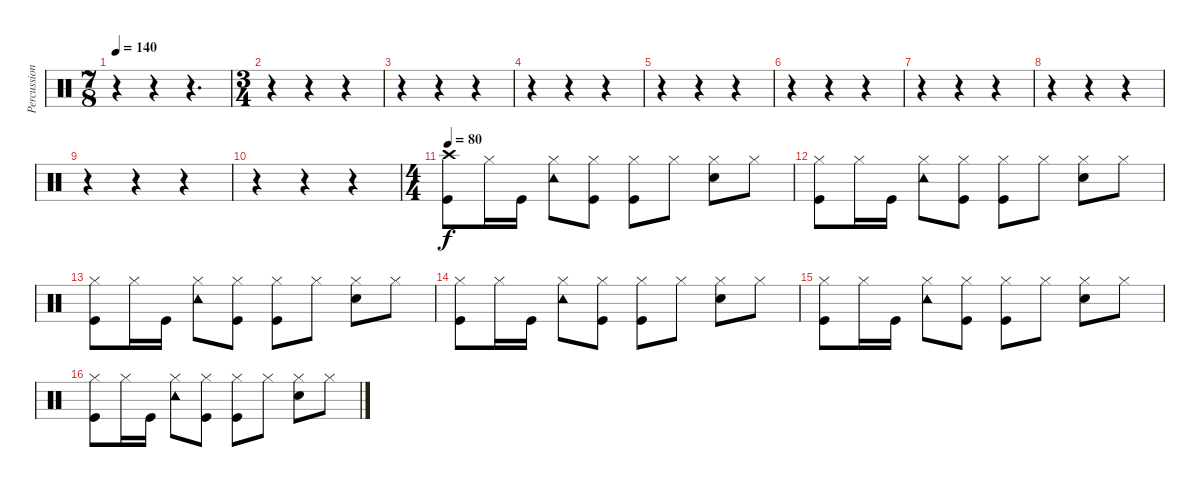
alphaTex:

\track ("Percussion" "Percussion") {instrument percussion}
\staff {score}
\articulation defaults
\ts (7 8)
\tempo 140
\clef neutral
\ks c
r.4{dy f} r.4 r.4{d} |
\ts (3 4)
r.4 r.4 r.4 |
r.4 r.4 r.4 |
r.4 r.4 r.4 |
r.4 r.4 r.4 |
r.4 r.4 r.4 |
r.4 r.4 r.4 |
r.4 r.4 r.4 |
r.4 r.4 r.4 |
r.4 r.4 r.4 |
\ts (4 4)
\tempo 80
("Crash high (hit)" "Kick (hit)").8 "Hi-Hat (closed)".16 "Kick (hit)".16 ("Tambourine (hit)" "Hi-Hat (closed)").8 ("Hi-Hat (closed)" "Kick (hit)").8 ("Hi-Hat (closed)" "Kick (hit)").8 "Hi-Hat (closed)".8 ("Electric Snare (hit)" "Hi-Hat (closed)").8 "Hi-Hat (closed)".8 |
("Hi-Hat (closed)" "Kick (hit)").8 "Hi-Hat (closed)".16 "Kick (hit)".16 ("Tambourine (hit)" "Hi-Hat (closed)").8 ("Hi-Hat (closed)" "Kick (hit)").8 ("Hi-Hat (closed)" "Kick (hit)").8 "Hi-Hat (closed)".8 ("Electric Snare (hit)" "Hi-Hat (closed)").8 "Hi-Hat (closed)".8 |
("Hi-Hat (closed)" "Kick (hit)").8 "Hi-Hat (closed)".16 "Kick (hit)".16 ("Tambourine (hit)" "Hi-Hat (closed)").8 ("Hi-Hat (closed)" "Kick (hit)").8 ("Hi-Hat (closed)" "Kick (hit)").8 "Hi-Hat (closed)".8 ("Electric Snare (hit)" "Hi-Hat (closed)").8 "Hi-Hat (closed)".8 |
("Hi-Hat (closed)" "Kick (hit)").8 "Hi-Hat (closed)".16 "Kick (hit)".16 ("Tambourine (hit)" "Hi-Hat (closed)").8 ("Hi-Hat (closed)" "Kick (hit)").8 ("Hi-Hat (closed)" "Kick (hit)").8 "Hi-Hat (closed)".8 ("Electric Snare (hit)" "Hi-Hat (closed)").8 "Hi-Hat (closed)".8 |
("Hi-Hat (closed)" "Kick (hit)").8 "Hi-Hat (closed)".16 "Kick (hit)".16 ("Tambourine (hit)" "Hi-Hat (closed)").8 ("Hi-Hat (closed)" "Kick (hit)").8 ("Hi-Hat (closed)" "Kick (hit)").8 "Hi-Hat (closed)".8 ("Electric Snare (hit)" "Hi-Hat (closed)").8 "Hi-Hat (closed)".8 |
("Hi-Hat (closed)" "Kick (hit)").8 "Hi-Hat (closed)".16 "Kick (hit)".16 ("Tambourine (hit)" "Hi-Hat (closed)").8 ("Hi-Hat (closed)" "Kick (hit)").8 ("Hi-Hat (closed)" "Kick (hit)").8 "Hi-Hat (closed)".8 ("Electric Snare (hit)" "Hi-Hat (closed)").8 "Hi-Hat (closed)".8
